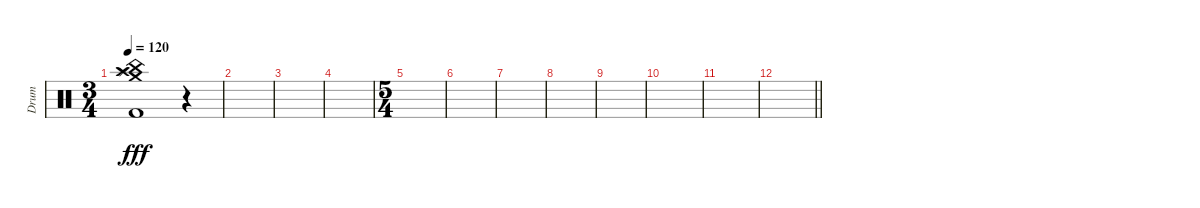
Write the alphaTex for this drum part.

\track ("Drum" "Drum") {instrument percussion}
\staff {score}
\articulation defaults
\ts (3 4)
\tempo 120
\clef neutral
\ks c
("Kick (hit) 2" "Crash high (hit)" "Crash medium (hit)" "China (hit)" "Splash (hit)").1{dy fff} r.4 |
|
|
|
\ts (5 4)
|
|
|
|
|
|
|
\barLineRight lightlight
